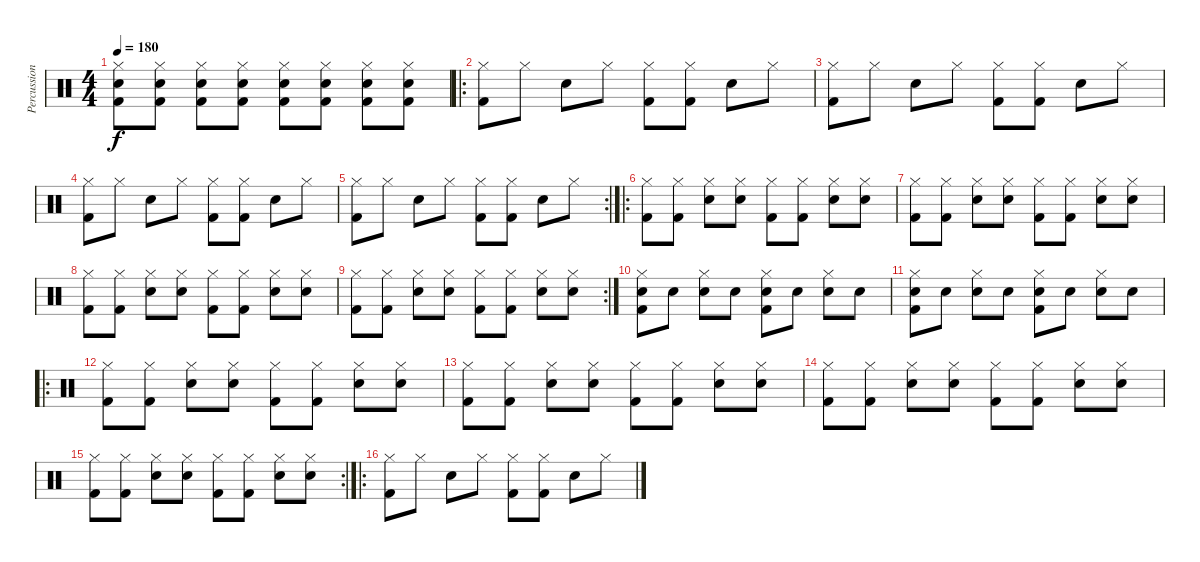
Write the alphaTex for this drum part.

\track ("Percussions" "Percussion") {instrument percussion}
\staff {score}
\articulation defaults
\ts (4 4)
\tempo 180
\clef neutral
\ks c
("Kick (hit) 2" "Electric Snare (hit)" "Hi-Hat (closed)").8{dy f} ("Kick (hit) 2" "Electric Snare (hit)" "Hi-Hat (closed)").8 ("Kick (hit) 2" "Electric Snare (hit)" "Hi-Hat (closed)").8 ("Kick (hit) 2" "Electric Snare (hit)" "Hi-Hat (closed)").8 ("Kick (hit) 2" "Electric Snare (hit)" "Hi-Hat (closed)").8 ("Kick (hit) 2" "Electric Snare (hit)" "Hi-Hat (closed)").8 ("Kick (hit) 2" "Electric Snare (hit)" "Hi-Hat (closed)").8 ("Kick (hit) 2" "Electric Snare (hit)" "Hi-Hat (closed)").8 |
\ro
("Kick (hit) 2" "Hi-Hat (closed)").8 "Hi-Hat (closed)".8 "Electric Snare (hit)".8 "Hi-Hat (closed)".8 ("Kick (hit) 2" "Hi-Hat (closed)").8 ("Kick (hit) 2" "Hi-Hat (closed)").8 "Electric Snare (hit)".8 "Hi-Hat (closed)".8 |
("Kick (hit) 2" "Hi-Hat (closed)").8 "Hi-Hat (closed)".8 "Electric Snare (hit)".8 "Hi-Hat (closed)".8 ("Kick (hit) 2" "Hi-Hat (closed)").8 ("Kick (hit) 2" "Hi-Hat (closed)").8 "Electric Snare (hit)".8 "Hi-Hat (closed)".8 |
("Kick (hit) 2" "Hi-Hat (closed)").8 "Hi-Hat (closed)".8 "Electric Snare (hit)".8 "Hi-Hat (closed)".8 ("Kick (hit) 2" "Hi-Hat (closed)").8 ("Kick (hit) 2" "Hi-Hat (closed)").8 "Electric Snare (hit)".8 "Hi-Hat (closed)".8 |
\rc 2
("Kick (hit) 2" "Hi-Hat (closed)").8 "Hi-Hat (closed)".8 "Electric Snare (hit)".8 "Hi-Hat (closed)".8 ("Kick (hit) 2" "Hi-Hat (closed)").8 ("Kick (hit) 2" "Hi-Hat (closed)").8 "Electric Snare (hit)".8 "Hi-Hat (closed)".8 |
\ro
("Kick (hit) 2" "Hi-Hat (closed)").8 ("Kick (hit) 2" "Hi-Hat (closed)").8 ("Electric Snare (hit)" "Hi-Hat (closed)").8 ("Electric Snare (hit)" "Hi-Hat (closed)").8 ("Kick (hit) 2" "Hi-Hat (closed)").8 ("Kick (hit) 2" "Hi-Hat (closed)").8 ("Electric Snare (hit)" "Hi-Hat (closed)").8 ("Electric Snare (hit)" "Hi-Hat (closed)").8 |
("Kick (hit) 2" "Hi-Hat (closed)").8 ("Kick (hit) 2" "Hi-Hat (closed)").8 ("Electric Snare (hit)" "Hi-Hat (closed)").8 ("Electric Snare (hit)" "Hi-Hat (closed)").8 ("Kick (hit) 2" "Hi-Hat (closed)").8 ("Kick (hit) 2" "Hi-Hat (closed)").8 ("Electric Snare (hit)" "Hi-Hat (closed)").8 ("Electric Snare (hit)" "Hi-Hat (closed)").8 |
("Kick (hit) 2" "Hi-Hat (closed)").8 ("Kick (hit) 2" "Hi-Hat (closed)").8 ("Electric Snare (hit)" "Hi-Hat (closed)").8 ("Electric Snare (hit)" "Hi-Hat (closed)").8 ("Kick (hit) 2" "Hi-Hat (closed)").8 ("Kick (hit) 2" "Hi-Hat (closed)").8 ("Electric Snare (hit)" "Hi-Hat (closed)").8 ("Electric Snare (hit)" "Hi-Hat (closed)").8 |
\rc 2
("Kick (hit) 2" "Hi-Hat (closed)").8 ("Kick (hit) 2" "Hi-Hat (closed)").8 ("Electric Snare (hit)" "Hi-Hat (closed)").8 ("Electric Snare (hit)" "Hi-Hat (closed)").8 ("Kick (hit) 2" "Hi-Hat (closed)").8 ("Kick (hit) 2" "Hi-Hat (closed)").8 ("Electric Snare (hit)" "Hi-Hat (closed)").8 ("Electric Snare (hit)" "Hi-Hat (closed)").8 |
("Kick (hit) 2" "Electric Snare (hit)" "Hi-Hat (closed)").8 "Electric Snare (hit)".8 ("Electric Snare (hit)" "Hi-Hat (closed)").8 "Electric Snare (hit)".8 ("Kick (hit) 2" "Electric Snare (hit)" "Hi-Hat (closed)").8 "Electric Snare (hit)".8 ("Electric Snare (hit)" "Hi-Hat (closed)").8 "Electric Snare (hit)".8 |
("Kick (hit) 2" "Electric Snare (hit)" "Hi-Hat (closed)").8 "Electric Snare (hit)".8 ("Electric Snare (hit)" "Hi-Hat (closed)").8 "Electric Snare (hit)".8 ("Kick (hit) 2" "Electric Snare (hit)" "Hi-Hat (closed)").8 "Electric Snare (hit)".8 ("Electric Snare (hit)" "Hi-Hat (closed)").8 "Electric Snare (hit)".8 |
\ro
("Kick (hit) 2" "Hi-Hat (closed)").8 ("Kick (hit) 2" "Hi-Hat (closed)").8 ("Electric Snare (hit)" "Hi-Hat (closed)").8 ("Electric Snare (hit)" "Hi-Hat (closed)").8 ("Kick (hit) 2" "Hi-Hat (closed)").8 ("Kick (hit) 2" "Hi-Hat (closed)").8 ("Electric Snare (hit)" "Hi-Hat (closed)").8 ("Electric Snare (hit)" "Hi-Hat (closed)").8 |
("Kick (hit) 2" "Hi-Hat (closed)").8 ("Kick (hit) 2" "Hi-Hat (closed)").8 ("Electric Snare (hit)" "Hi-Hat (closed)").8 ("Electric Snare (hit)" "Hi-Hat (closed)").8 ("Kick (hit) 2" "Hi-Hat (closed)").8 ("Kick (hit) 2" "Hi-Hat (closed)").8 ("Electric Snare (hit)" "Hi-Hat (closed)").8 ("Electric Snare (hit)" "Hi-Hat (closed)").8 |
("Kick (hit) 2" "Hi-Hat (closed)").8 ("Kick (hit) 2" "Hi-Hat (closed)").8 ("Electric Snare (hit)" "Hi-Hat (closed)").8 ("Electric Snare (hit)" "Hi-Hat (closed)").8 ("Kick (hit) 2" "Hi-Hat (closed)").8 ("Kick (hit) 2" "Hi-Hat (closed)").8 ("Electric Snare (hit)" "Hi-Hat (closed)").8 ("Electric Snare (hit)" "Hi-Hat (closed)").8 |
\rc 2
("Kick (hit) 2" "Hi-Hat (closed)").8 ("Kick (hit) 2" "Hi-Hat (closed)").8 ("Electric Snare (hit)" "Hi-Hat (closed)").8 ("Electric Snare (hit)" "Hi-Hat (closed)").8 ("Kick (hit) 2" "Hi-Hat (closed)").8 ("Kick (hit) 2" "Hi-Hat (closed)").8 ("Electric Snare (hit)" "Hi-Hat (closed)").8 ("Electric Snare (hit)" "Hi-Hat (closed)").8 |
\ro
("Kick (hit) 2" "Hi-Hat (closed)").8 "Hi-Hat (closed)".8 "Electric Snare (hit)".8 "Hi-Hat (closed)".8 ("Kick (hit) 2" "Hi-Hat (closed)").8 ("Kick (hit) 2" "Hi-Hat (closed)").8 "Electric Snare (hit)".8 "Hi-Hat (closed)".8
